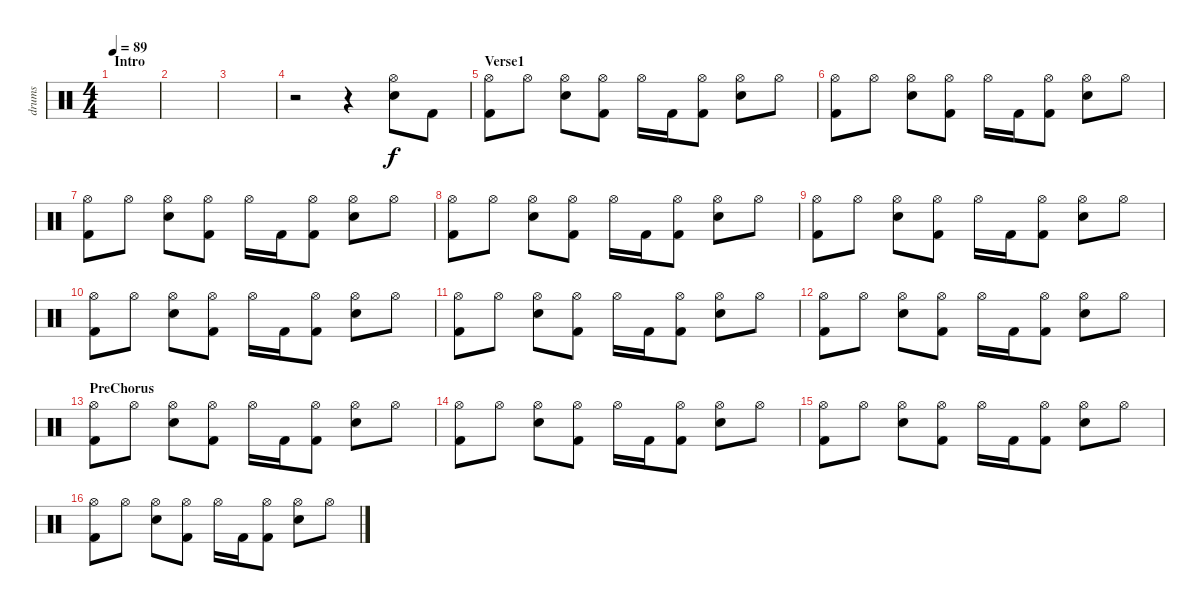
\track ("drums" "drums") {instrument percussion}
\staff {score}
\articulation defaults
\ts (4 4)
\section ("" "Intro")
\tempo 89
\clef neutral
\ks c
|
|
|
r.2 r.4 ("Hi-Hat (open)" "Electric Snare (hit)").8 "Kick (hit) 2".8 |
\section ("" "Verse1")
("Hi-Hat (open)" "Kick (hit) 2").8 "Hi-Hat (open)".8 ("Hi-Hat (open)" "Electric Snare (hit)").8 ("Hi-Hat (open)" "Kick (hit) 2").8 "Hi-Hat (open)".16 "Kick (hit) 2".16 ("Hi-Hat (open)" "Kick (hit) 2").8 ("Hi-Hat (open)" "Electric Snare (hit)").8 "Hi-Hat (open)".8 |
("Hi-Hat (open)" "Kick (hit) 2").8 "Hi-Hat (open)".8 ("Hi-Hat (open)" "Electric Snare (hit)").8 ("Hi-Hat (open)" "Kick (hit) 2").8 "Hi-Hat (open)".16 "Kick (hit) 2".16 ("Hi-Hat (open)" "Kick (hit) 2").8 ("Hi-Hat (open)" "Electric Snare (hit)").8 "Hi-Hat (open)".8 |
("Hi-Hat (open)" "Kick (hit) 2").8 "Hi-Hat (open)".8 ("Hi-Hat (open)" "Electric Snare (hit)").8 ("Hi-Hat (open)" "Kick (hit) 2").8 "Hi-Hat (open)".16 "Kick (hit) 2".16 ("Hi-Hat (open)" "Kick (hit) 2").8 ("Hi-Hat (open)" "Electric Snare (hit)").8 "Hi-Hat (open)".8 |
("Hi-Hat (open)" "Kick (hit) 2").8 "Hi-Hat (open)".8 ("Hi-Hat (open)" "Electric Snare (hit)").8 ("Hi-Hat (open)" "Kick (hit) 2").8 "Hi-Hat (open)".16 "Kick (hit) 2".16 ("Hi-Hat (open)" "Kick (hit) 2").8 ("Hi-Hat (open)" "Electric Snare (hit)").8 "Hi-Hat (open)".8 |
("Hi-Hat (open)" "Kick (hit) 2").8 "Hi-Hat (open)".8 ("Hi-Hat (open)" "Electric Snare (hit)").8 ("Hi-Hat (open)" "Kick (hit) 2").8 "Hi-Hat (open)".16 "Kick (hit) 2".16 ("Hi-Hat (open)" "Kick (hit) 2").8 ("Hi-Hat (open)" "Electric Snare (hit)").8 "Hi-Hat (open)".8 |
("Hi-Hat (open)" "Kick (hit) 2").8 "Hi-Hat (open)".8 ("Hi-Hat (open)" "Electric Snare (hit)").8 ("Hi-Hat (open)" "Kick (hit) 2").8 "Hi-Hat (open)".16 "Kick (hit) 2".16 ("Hi-Hat (open)" "Kick (hit) 2").8 ("Hi-Hat (open)" "Electric Snare (hit)").8 "Hi-Hat (open)".8 |
("Hi-Hat (open)" "Kick (hit) 2").8 "Hi-Hat (open)".8 ("Hi-Hat (open)" "Electric Snare (hit)").8 ("Hi-Hat (open)" "Kick (hit) 2").8 "Hi-Hat (open)".16 "Kick (hit) 2".16 ("Hi-Hat (open)" "Kick (hit) 2").8 ("Hi-Hat (open)" "Electric Snare (hit)").8 "Hi-Hat (open)".8 |
("Hi-Hat (open)" "Kick (hit) 2").8 "Hi-Hat (open)".8 ("Hi-Hat (open)" "Electric Snare (hit)").8 ("Hi-Hat (open)" "Kick (hit) 2").8 "Hi-Hat (open)".16 "Kick (hit) 2".16 ("Hi-Hat (open)" "Kick (hit) 2").8 ("Hi-Hat (open)" "Electric Snare (hit)").8 "Hi-Hat (open)".8 |
\section ("" "PreChorus")
("Hi-Hat (open)" "Kick (hit) 2").8 "Hi-Hat (open)".8 ("Hi-Hat (open)" "Electric Snare (hit)").8 ("Hi-Hat (open)" "Kick (hit) 2").8 "Hi-Hat (open)".16 "Kick (hit) 2".16 ("Hi-Hat (open)" "Kick (hit) 2").8 ("Hi-Hat (open)" "Electric Snare (hit)").8 "Hi-Hat (open)".8 |
("Hi-Hat (open)" "Kick (hit) 2").8 "Hi-Hat (open)".8 ("Hi-Hat (open)" "Electric Snare (hit)").8 ("Hi-Hat (open)" "Kick (hit) 2").8 "Hi-Hat (open)".16 "Kick (hit) 2".16 ("Hi-Hat (open)" "Kick (hit) 2").8 ("Hi-Hat (open)" "Electric Snare (hit)").8 "Hi-Hat (open)".8 |
("Hi-Hat (open)" "Kick (hit) 2").8 "Hi-Hat (open)".8 ("Hi-Hat (open)" "Electric Snare (hit)").8 ("Hi-Hat (open)" "Kick (hit) 2").8 "Hi-Hat (open)".16 "Kick (hit) 2".16 ("Hi-Hat (open)" "Kick (hit) 2").8 ("Hi-Hat (open)" "Electric Snare (hit)").8 "Hi-Hat (open)".8 |
("Hi-Hat (open)" "Kick (hit) 2").8 "Hi-Hat (open)".8 ("Hi-Hat (open)" "Electric Snare (hit)").8 ("Hi-Hat (open)" "Kick (hit) 2").8 "Hi-Hat (open)".16 "Kick (hit) 2".16 ("Hi-Hat (open)" "Kick (hit) 2").8 ("Hi-Hat (open)" "Electric Snare (hit)").8 "Hi-Hat (open)".8
